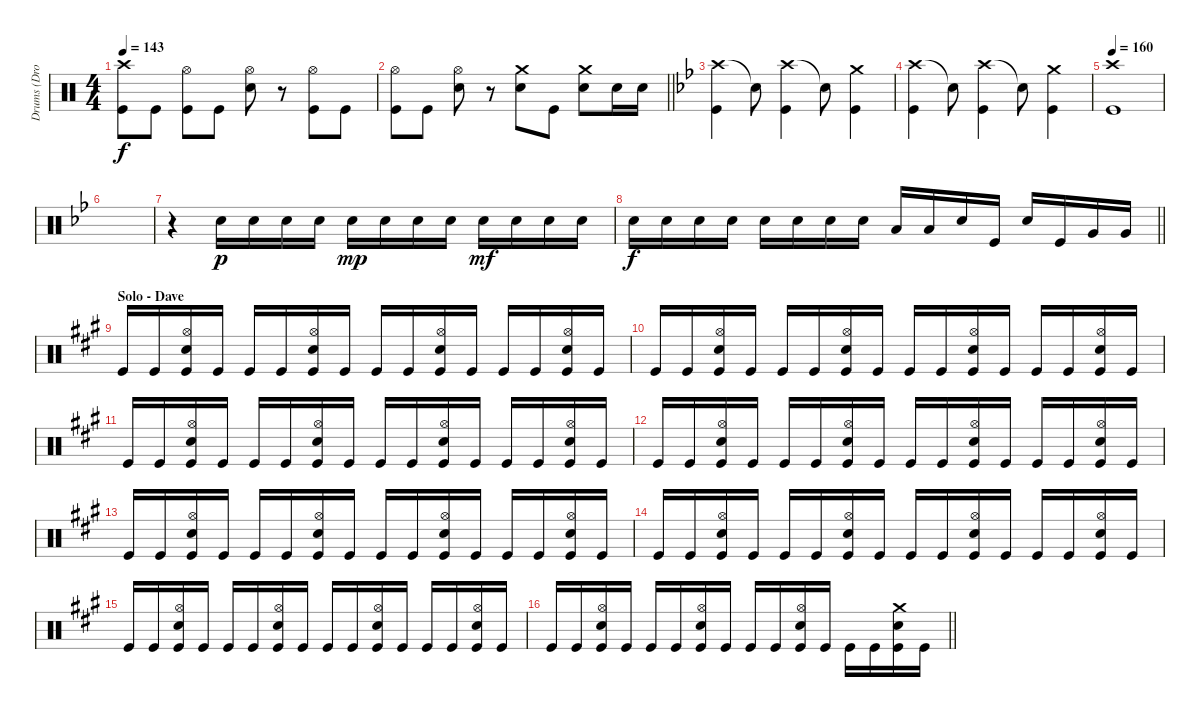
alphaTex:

\track ("Drums (Drover)" "Drums (Dro") {instrument percussion}
\staff {score}
\articulation defaults
\ts (4 4)
\tempo 143
\clef neutral
\ks c
("Crash high (hit)" "Kick (hit)").8{dy f} "Kick (hit)".8 ("Hi-Hat (open)" "Kick (hit)").8 "Kick (hit)".8 ("Hi-Hat (open)" "Snare (hit) 2").8 r.8 ("Hi-Hat (open)" "Kick (hit)").8 "Kick (hit)".8 |
\barLineRight lightlight
("Hi-Hat (open)" "Kick (hit)").8 "Kick (hit)".8 ("Hi-Hat (open)" "Snare (hit) 2").8 r.8 ("Crash medium (hit)" "Snare (hit) 2").8 "Kick (hit)".8 ("Crash medium (hit)" "Snare (hit) 2").8 "Snare (hit) 2".16 "Snare (hit) 2".16 |
\ks bb
("Crash high (hit)" "Kick (hit)").4 "Snare (hit)"{t}.8 ("Crash high (hit)" "Kick (hit)").4 "Snare (hit)"{t}.8 ("Crash medium (hit)" "Kick (hit)").4 |
("Crash high (hit)" "Kick (hit)").4 "Snare (hit)"{t}.8 ("Crash high (hit)" "Kick (hit)").4 "Snare (hit)"{t}.8 ("Crash medium (hit)" "Kick (hit)").4 |
\tempo 160
("Crash high (hit)" "Kick (hit)").1 |
|
r.4 "Snare (hit) 2".16{dy p} "Snare (hit) 2".16 "Snare (hit) 2".16 "Snare (hit) 2".16 "Snare (hit) 2".16{dy mp} "Snare (hit) 2".16 "Snare (hit) 2".16 "Snare (hit) 2".16 "Snare (hit) 2".16{dy mf} "Snare (hit) 2".16 "Snare (hit) 2".16 "Snare (hit) 2".16 |
\barLineRight lightlight "Snare (hit) 2".16{dy f} "Snare (hit) 2".16 "Snare (hit) 2".16 "Snare (hit) 2".16 "Snare (hit) 2".16 "Snare (hit) 2".16 "Snare (hit) 2".16 "Snare (hit) 2".16 "Low Tom (hit)".16 "Low Tom (hit)".16 "Snare (hit) 2".16 "Kick (hit)".16 "Snare (hit) 2".16 "Kick (hit)".16 "Very Low Tom (hit)".16 "Very Low Tom (hit)".16
|
\section ("" "Solo - Dave")
\ks a "Kick (hit)".16 "Kick (hit)".16
("Hi-Hat (open)" "Snare (hit) 2" "Kick (hit)").16 "Kick (hit)".16 "Kick (hit)".16 "Kick (hit)".16 ("Hi-Hat (open)" "Snare (hit) 2" "Kick (hit)").16 "Kick (hit)".16 "Kick (hit)".16 "Kick (hit)".16 ("Hi-Hat (open)" "Snare (hit) 2" "Kick (hit)").16 "Kick (hit)".16 "Kick (hit)".16 "Kick (hit)".16 ("Hi-Hat (open)" "Snare (hit) 2" "Kick (hit)").16 "Kick (hit)".16 |
"Kick (hit)".16 "Kick (hit)".16 ("Hi-Hat (open)" "Snare (hit) 2" "Kick (hit)").16 "Kick (hit)".16 "Kick (hit)".16 "Kick (hit)".16 ("Hi-Hat (open)" "Snare (hit) 2" "Kick (hit)").16 "Kick (hit)".16 "Kick (hit)".16 "Kick (hit)".16 ("Hi-Hat (open)" "Snare (hit) 2" "Kick (hit)").16 "Kick (hit)".16 "Kick (hit)".16 "Kick (hit)".16 ("Hi-Hat (open)" "Snare (hit) 2" "Kick (hit)").16 "Kick (hit)".16 |
"Kick (hit)".16 "Kick (hit)".16 ("Hi-Hat (open)" "Snare (hit) 2" "Kick (hit)").16 "Kick (hit)".16 "Kick (hit)".16 "Kick (hit)".16 ("Hi-Hat (open)" "Snare (hit) 2" "Kick (hit)").16 "Kick (hit)".16 "Kick (hit)".16 "Kick (hit)".16 ("Hi-Hat (open)" "Snare (hit) 2" "Kick (hit)").16 "Kick (hit)".16 "Kick (hit)".16 "Kick (hit)".16 ("Hi-Hat (open)" "Snare (hit) 2" "Kick (hit)").16 "Kick (hit)".16 |
"Kick (hit)".16 "Kick (hit)".16 ("Hi-Hat (open)" "Snare (hit) 2" "Kick (hit)").16 "Kick (hit)".16 "Kick (hit)".16 "Kick (hit)".16 ("Hi-Hat (open)" "Snare (hit) 2" "Kick (hit)").16 "Kick (hit)".16 "Kick (hit)".16 "Kick (hit)".16 ("Hi-Hat (open)" "Snare (hit) 2" "Kick (hit)").16 "Kick (hit)".16 "Kick (hit)".16 "Kick (hit)".16 ("Hi-Hat (open)" "Snare (hit) 2" "Kick (hit)").16 "Kick (hit)".16 |
"Kick (hit)".16 "Kick (hit)".16 ("Hi-Hat (open)" "Snare (hit) 2" "Kick (hit)").16 "Kick (hit)".16 "Kick (hit)".16 "Kick (hit)".16 ("Hi-Hat (open)" "Snare (hit) 2" "Kick (hit)").16 "Kick (hit)".16 "Kick (hit)".16 "Kick (hit)".16 ("Hi-Hat (open)" "Snare (hit) 2" "Kick (hit)").16 "Kick (hit)".16 "Kick (hit)".16 "Kick (hit)".16 ("Hi-Hat (open)" "Snare (hit) 2" "Kick (hit)").16 "Kick (hit)".16 |
"Kick (hit)".16 "Kick (hit)".16 ("Hi-Hat (open)" "Snare (hit) 2" "Kick (hit)").16 "Kick (hit)".16 "Kick (hit)".16 "Kick (hit)".16 ("Hi-Hat (open)" "Snare (hit) 2" "Kick (hit)").16 "Kick (hit)".16 "Kick (hit)".16 "Kick (hit)".16 ("Hi-Hat (open)" "Snare (hit) 2" "Kick (hit)").16 "Kick (hit)".16 "Kick (hit)".16 "Kick (hit)".16 ("Hi-Hat (open)" "Snare (hit) 2" "Kick (hit)").16 "Kick (hit)".16 |
"Kick (hit)".16 "Kick (hit)".16 ("Hi-Hat (open)" "Snare (hit) 2" "Kick (hit)").16 "Kick (hit)".16 "Kick (hit)".16 "Kick (hit)".16 ("Hi-Hat (open)" "Snare (hit) 2" "Kick (hit)").16 "Kick (hit)".16 "Kick (hit)".16 "Kick (hit)".16 ("Hi-Hat (open)" "Snare (hit) 2" "Kick (hit)").16 "Kick (hit)".16 "Kick (hit)".16 "Kick (hit)".16 ("Hi-Hat (open)" "Snare (hit) 2" "Kick (hit)").16 "Kick (hit)".16 |
\barLineRight lightlight "Kick (hit)".16 "Kick (hit)".16
("Hi-Hat (open)" "Snare (hit) 2" "Kick (hit)").16 "Kick (hit)".16 "Kick (hit)".16 "Kick (hit)".16 ("Hi-Hat (open)" "Snare (hit) 2" "Kick (hit)").16 "Kick (hit)".16 "Kick (hit)".16 "Kick (hit)".16 ("Hi-Hat (open)" "Snare (hit) 2" "Kick (hit)").16 "Kick (hit)".16 "Kick (hit)".16 "Kick (hit)".16 ("Crash medium (hit)" "Snare (hit) 2" "Kick (hit)").16 "Kick (hit)".16
